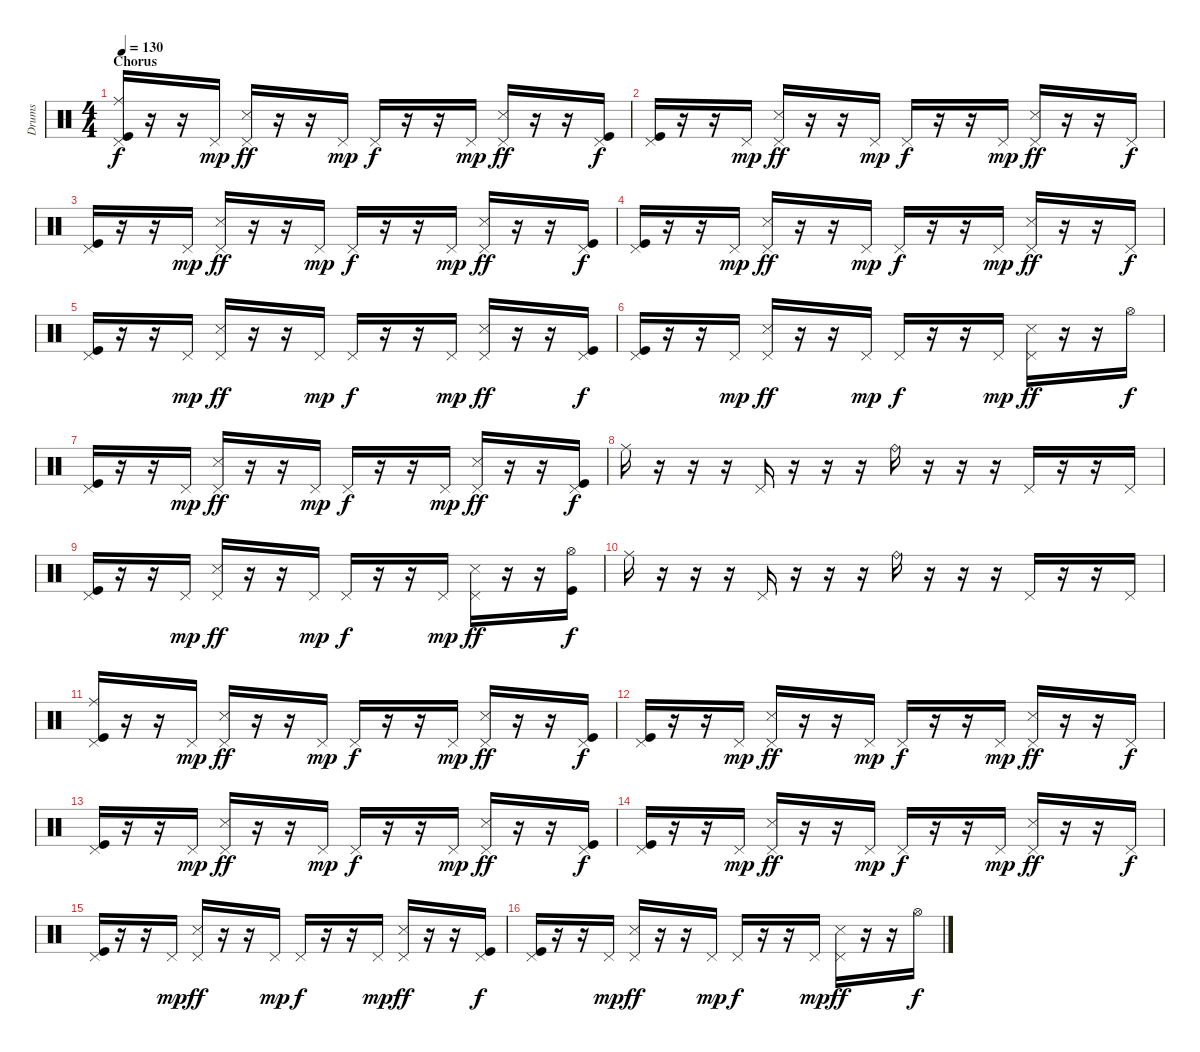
\track ("Drums" "Drums") {instrument percussion}
\staff {score}
\articulation defaults
\ts (4 4)
\section ("" "Chorus")
\tempo 130
\clef neutral
\ks c
("Pedal Hi-Hat (hit)" "Ride (middle)" "Kick (hit)").16{dy f} r.16 r.16 "Pedal Hi-Hat (hit)".16{dy mp} ("Pedal Hi-Hat (hit)" "Snare (side stick) 3").16{dy ff} r.16 r.16 "Pedal Hi-Hat (hit)".16{dy mp} "Pedal Hi-Hat (hit)".16{dy f} r.16 r.16 "Pedal Hi-Hat (hit)".16{dy mp} ("Pedal Hi-Hat (hit)" "Snare (side stick) 3").16{dy ff} r.16 r.16 ("Pedal Hi-Hat (hit)" "Kick (hit)").16{dy f} |
("Pedal Hi-Hat (hit)" "Kick (hit)").16 r.16 r.16 "Pedal Hi-Hat (hit)".16{dy mp} ("Pedal Hi-Hat (hit)" "Snare (side stick) 3").16{dy ff} r.16 r.16 "Pedal Hi-Hat (hit)".16{dy mp} "Pedal Hi-Hat (hit)".16{dy f} r.16 r.16 "Pedal Hi-Hat (hit)".16{dy mp} ("Pedal Hi-Hat (hit)" "Snare (side stick) 3").16{dy ff} r.16 r.16 "Pedal Hi-Hat (hit)".16{dy f} |
("Pedal Hi-Hat (hit)" "Kick (hit)").16 r.16 r.16 "Pedal Hi-Hat (hit)".16{dy mp} ("Pedal Hi-Hat (hit)" "Snare (side stick) 3").16{dy ff} r.16 r.16 "Pedal Hi-Hat (hit)".16{dy mp} "Pedal Hi-Hat (hit)".16{dy f} r.16 r.16 "Pedal Hi-Hat (hit)".16{dy mp} ("Pedal Hi-Hat (hit)" "Snare (side stick) 3").16{dy ff} r.16 r.16 ("Pedal Hi-Hat (hit)" "Kick (hit)").16{dy f} |
("Pedal Hi-Hat (hit)" "Kick (hit)").16 r.16 r.16 "Pedal Hi-Hat (hit)".16{dy mp} ("Pedal Hi-Hat (hit)" "Snare (side stick) 3").16{dy ff} r.16 r.16 "Pedal Hi-Hat (hit)".16{dy mp} "Pedal Hi-Hat (hit)".16{dy f} r.16 r.16 "Pedal Hi-Hat (hit)".16{dy mp} ("Pedal Hi-Hat (hit)" "Snare (side stick) 3").16{dy ff} r.16 r.16 "Pedal Hi-Hat (hit)".16{dy f} |
("Pedal Hi-Hat (hit)" "Kick (hit)").16 r.16 r.16 "Pedal Hi-Hat (hit)".16{dy mp} ("Pedal Hi-Hat (hit)" "Snare (side stick) 3").16{dy ff} r.16 r.16 "Pedal Hi-Hat (hit)".16{dy mp} "Pedal Hi-Hat (hit)".16{dy f} r.16 r.16 "Pedal Hi-Hat (hit)".16{dy mp} ("Pedal Hi-Hat (hit)" "Snare (side stick) 3").16{dy ff} r.16 r.16 ("Pedal Hi-Hat (hit)" "Kick (hit)").16{dy f} |
("Pedal Hi-Hat (hit)" "Kick (hit)").16 r.16 r.16 "Pedal Hi-Hat (hit)".16{dy mp} ("Pedal Hi-Hat (hit)" "Snare (side stick) 3").16{dy ff} r.16 r.16 "Pedal Hi-Hat (hit)".16{dy mp} "Pedal Hi-Hat (hit)".16{dy f} r.16 r.16 "Pedal Hi-Hat (hit)".16{dy mp} ("Pedal Hi-Hat (hit)" "Snare (side stick) 3").16{dy ff} r.16 r.16 "Hi-Hat (open)".16{dy f} |
("Pedal Hi-Hat (hit)" "Kick (hit)").16 r.16 r.16 "Pedal Hi-Hat (hit)".16{dy mp} ("Pedal Hi-Hat (hit)" "Snare (side stick) 3").16{dy ff} r.16 r.16 "Pedal Hi-Hat (hit)".16{dy mp} "Pedal Hi-Hat (hit)".16{dy f} r.16 r.16 "Pedal Hi-Hat (hit)".16{dy mp} ("Pedal Hi-Hat (hit)" "Snare (side stick) 3").16{dy ff} r.16 r.16 ("Pedal Hi-Hat (hit)" "Kick (hit)").16{dy f} |
"Ride (middle)".16 r.16 r.16 r.16 "Pedal Hi-Hat (hit)".16 r.16 r.16 r.16 "Ride (bell)".16 r.16 r.16 r.16 "Pedal Hi-Hat (hit)".16 r.16 r.16 "Pedal Hi-Hat (hit)".16 |
("Pedal Hi-Hat (hit)" "Kick (hit)").16 r.16 r.16 "Pedal Hi-Hat (hit)".16{dy mp} ("Pedal Hi-Hat (hit)" "Snare (side stick) 3").16{dy ff} r.16 r.16 "Pedal Hi-Hat (hit)".16{dy mp} "Pedal Hi-Hat (hit)".16{dy f} r.16 r.16 "Pedal Hi-Hat (hit)".16{dy mp} ("Pedal Hi-Hat (hit)" "Snare (side stick) 3").16{dy ff} r.16 r.16 ("Hi-Hat (open)" "Kick (hit)").16{dy f} |
"Ride (middle)".16 r.16 r.16 r.16 "Pedal Hi-Hat (hit)".16 r.16 r.16 r.16 "Ride (bell)".16 r.16 r.16 r.16 "Pedal Hi-Hat (hit)".16 r.16 r.16 "Pedal Hi-Hat (hit)".16 |
("Pedal Hi-Hat (hit)" "Ride (middle)" "Kick (hit)").16 r.16 r.16 "Pedal Hi-Hat (hit)".16{dy mp} ("Pedal Hi-Hat (hit)" "Snare (side stick) 3").16{dy ff} r.16 r.16 "Pedal Hi-Hat (hit)".16{dy mp} "Pedal Hi-Hat (hit)".16{dy f} r.16 r.16 "Pedal Hi-Hat (hit)".16{dy mp} ("Pedal Hi-Hat (hit)" "Snare (side stick) 3").16{dy ff} r.16 r.16 ("Pedal Hi-Hat (hit)" "Kick (hit)").16{dy f} |
("Pedal Hi-Hat (hit)" "Kick (hit)").16 r.16 r.16 "Pedal Hi-Hat (hit)".16{dy mp} ("Pedal Hi-Hat (hit)" "Snare (side stick) 3").16{dy ff} r.16 r.16 "Pedal Hi-Hat (hit)".16{dy mp} "Pedal Hi-Hat (hit)".16{dy f} r.16 r.16 "Pedal Hi-Hat (hit)".16{dy mp} ("Pedal Hi-Hat (hit)" "Snare (side stick) 3").16{dy ff} r.16 r.16 "Pedal Hi-Hat (hit)".16{dy f} |
("Pedal Hi-Hat (hit)" "Kick (hit)").16 r.16 r.16 "Pedal Hi-Hat (hit)".16{dy mp} ("Pedal Hi-Hat (hit)" "Snare (side stick) 3").16{dy ff} r.16 r.16 "Pedal Hi-Hat (hit)".16{dy mp} "Pedal Hi-Hat (hit)".16{dy f} r.16 r.16 "Pedal Hi-Hat (hit)".16{dy mp} ("Pedal Hi-Hat (hit)" "Snare (side stick) 3").16{dy ff} r.16 r.16 ("Pedal Hi-Hat (hit)" "Kick (hit)").16{dy f} |
("Pedal Hi-Hat (hit)" "Kick (hit)").16 r.16 r.16 "Pedal Hi-Hat (hit)".16{dy mp} ("Pedal Hi-Hat (hit)" "Snare (side stick) 3").16{dy ff} r.16 r.16 "Pedal Hi-Hat (hit)".16{dy mp} "Pedal Hi-Hat (hit)".16{dy f} r.16 r.16 "Pedal Hi-Hat (hit)".16{dy mp} ("Pedal Hi-Hat (hit)" "Snare (side stick) 3").16{dy ff} r.16 r.16 "Pedal Hi-Hat (hit)".16{dy f} |
("Pedal Hi-Hat (hit)" "Kick (hit)").16 r.16 r.16 "Pedal Hi-Hat (hit)".16{dy mp} ("Pedal Hi-Hat (hit)" "Snare (side stick) 3").16{dy ff} r.16 r.16 "Pedal Hi-Hat (hit)".16{dy mp} "Pedal Hi-Hat (hit)".16{dy f} r.16 r.16 "Pedal Hi-Hat (hit)".16{dy mp} ("Pedal Hi-Hat (hit)" "Snare (side stick) 3").16{dy ff} r.16 r.16 ("Pedal Hi-Hat (hit)" "Kick (hit)").16{dy f} |
("Pedal Hi-Hat (hit)" "Kick (hit)").16 r.16 r.16 "Pedal Hi-Hat (hit)".16{dy mp} ("Pedal Hi-Hat (hit)" "Snare (side stick) 3").16{dy ff} r.16 r.16 "Pedal Hi-Hat (hit)".16{dy mp} "Pedal Hi-Hat (hit)".16{dy f} r.16 r.16 "Pedal Hi-Hat (hit)".16{dy mp} ("Pedal Hi-Hat (hit)" "Snare (side stick) 3").16{dy ff} r.16 r.16 "Hi-Hat (open)".16{dy f}
